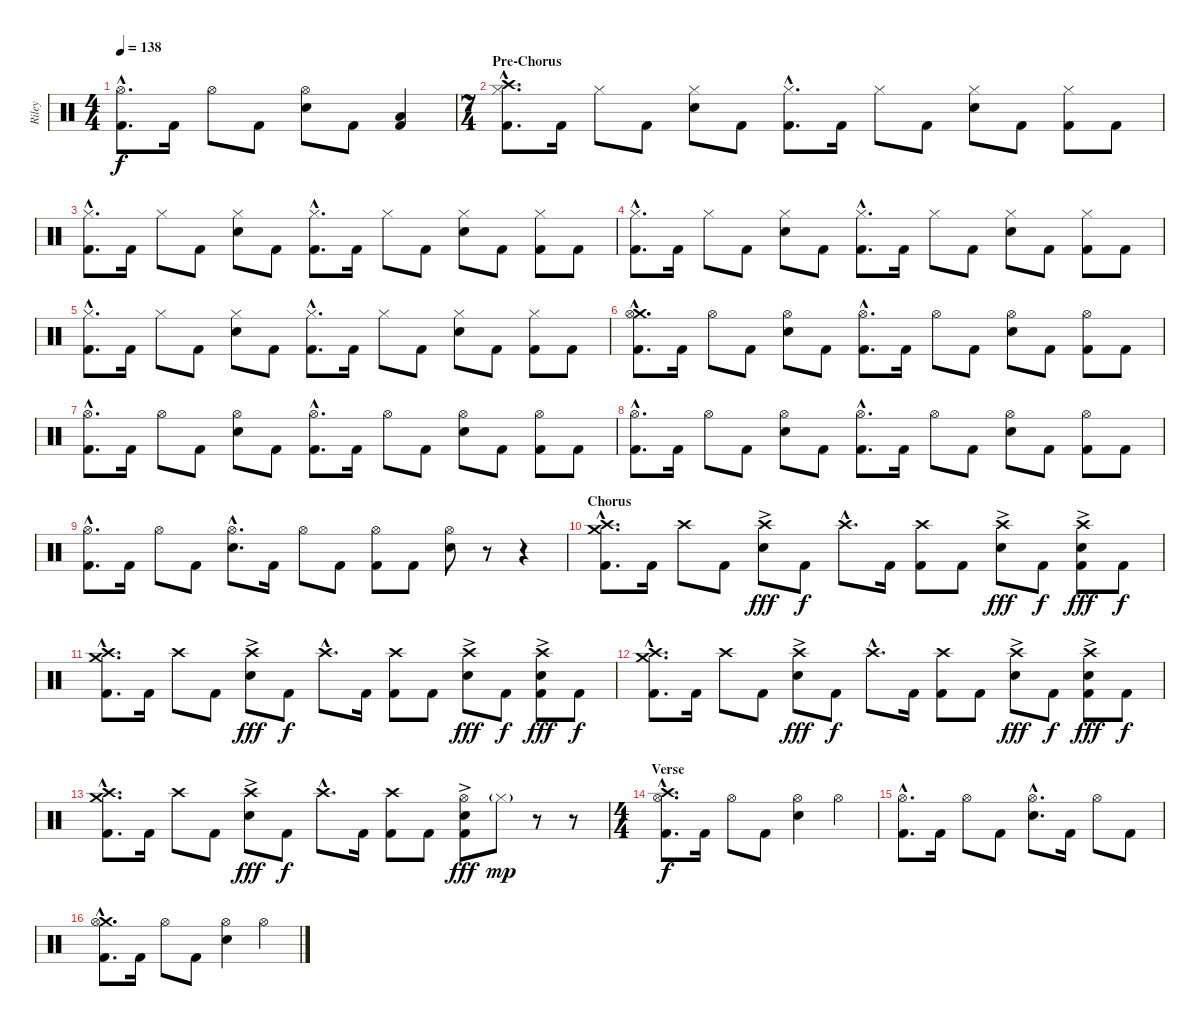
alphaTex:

\track ("Riley" "Riley") {instrument percussion}
\staff {score}
\articulation defaults
\ts (4 4)
\tempo 138
\clef neutral
\ks c
("Hi-Hat (open)"{hac} "Kick (hit) 2"{hac}).8{d dy f} "Kick (hit) 2".16 "Hi-Hat (open)".8 "Kick (hit) 2".8 ("Hi-Hat (open)" "Electric Snare (hit)").8 "Kick (hit) 2".8 ("Low Tom (hit)" "Kick (hit) 2").4 |
\ts (7 4)
\section ("" "Pre-Chorus")
("Crash high (hit)"{hac} "Hi-Hat (closed)"{hac} "Kick (hit) 2"{hac}).8{d} "Kick (hit) 2".16 "Hi-Hat (closed)".8 "Kick (hit) 2".8 ("Hi-Hat (closed)" "Electric Snare (hit)").8 "Kick (hit) 2".8 ("Hi-Hat (closed)"{hac} "Kick (hit) 2"{hac}).8{d} "Kick (hit) 2".16 "Hi-Hat (closed)".8 "Kick (hit) 2".8 ("Hi-Hat (closed)" "Electric Snare (hit)").8 "Kick (hit) 2".8 ("Hi-Hat (closed)" "Kick (hit) 2").8 "Kick (hit) 2".8 |
("Hi-Hat (closed)"{hac} "Kick (hit) 2"{hac}).8{d} "Kick (hit) 2".16 "Hi-Hat (closed)".8 "Kick (hit) 2".8 ("Hi-Hat (closed)" "Electric Snare (hit)").8 "Kick (hit) 2".8 ("Hi-Hat (closed)"{hac} "Kick (hit) 2"{hac}).8{d} "Kick (hit) 2".16 "Hi-Hat (closed)".8 "Kick (hit) 2".8 ("Hi-Hat (closed)" "Electric Snare (hit)").8 "Kick (hit) 2".8 ("Hi-Hat (closed)" "Kick (hit) 2").8 "Kick (hit) 2".8 |
("Hi-Hat (closed)"{hac} "Kick (hit) 2"{hac}).8{d} "Kick (hit) 2".16 "Hi-Hat (closed)".8 "Kick (hit) 2".8 ("Hi-Hat (closed)" "Electric Snare (hit)").8 "Kick (hit) 2".8 ("Hi-Hat (closed)"{hac} "Kick (hit) 2"{hac}).8{d} "Kick (hit) 2".16 "Hi-Hat (closed)".8 "Kick (hit) 2".8 ("Hi-Hat (closed)" "Electric Snare (hit)").8 "Kick (hit) 2".8 ("Hi-Hat (closed)" "Kick (hit) 2").8 "Kick (hit) 2".8 |
("Hi-Hat (closed)"{hac} "Kick (hit) 2"{hac}).8{d} "Kick (hit) 2".16 "Hi-Hat (closed)".8 "Kick (hit) 2".8 ("Hi-Hat (closed)" "Electric Snare (hit)").8 "Kick (hit) 2".8 ("Hi-Hat (closed)"{hac} "Kick (hit) 2"{hac}).8{d} "Kick (hit) 2".16 "Hi-Hat (closed)".8 "Kick (hit) 2".8 ("Hi-Hat (closed)" "Electric Snare (hit)").8 "Kick (hit) 2".8 ("Hi-Hat (closed)" "Kick (hit) 2").8 "Kick (hit) 2".8 |
("Crash medium (hit)"{hac} "Hi-Hat (open)"{hac} "Kick (hit) 2"{hac}).8{d} "Kick (hit) 2".16 "Hi-Hat (open)".8 "Kick (hit) 2".8 ("Hi-Hat (open)" "Electric Snare (hit)").8 "Kick (hit) 2".8 ("Hi-Hat (open)"{hac} "Kick (hit) 2"{hac}).8{d} "Kick (hit) 2".16 "Hi-Hat (open)".8 "Kick (hit) 2".8 ("Hi-Hat (open)" "Electric Snare (hit)").8 "Kick (hit) 2".8 ("Hi-Hat (open)" "Kick (hit) 2").8 "Kick (hit) 2".8 |
("Hi-Hat (open)"{hac} "Kick (hit) 2"{hac}).8{d} "Kick (hit) 2".16 "Hi-Hat (open)".8 "Kick (hit) 2".8 ("Hi-Hat (open)" "Electric Snare (hit)").8 "Kick (hit) 2".8 ("Hi-Hat (open)"{hac} "Kick (hit) 2"{hac}).8{d} "Kick (hit) 2".16 "Hi-Hat (open)".8 "Kick (hit) 2".8 ("Hi-Hat (open)" "Electric Snare (hit)").8 "Kick (hit) 2".8 ("Hi-Hat (open)" "Kick (hit) 2").8 "Kick (hit) 2".8 |
("Hi-Hat (open)"{hac} "Kick (hit) 2"{hac}).8{d} "Kick (hit) 2".16 "Hi-Hat (open)".8 "Kick (hit) 2".8 ("Hi-Hat (open)" "Electric Snare (hit)").8 "Kick (hit) 2".8 ("Hi-Hat (open)"{hac} "Kick (hit) 2"{hac}).8{d} "Kick (hit) 2".16 "Hi-Hat (open)".8 "Kick (hit) 2".8 ("Hi-Hat (open)" "Electric Snare (hit)").8 "Kick (hit) 2".8 ("Hi-Hat (open)" "Kick (hit) 2").8 "Kick (hit) 2".8 |
("Hi-Hat (open)"{hac} "Kick (hit) 2"{hac}).8{d} "Kick (hit) 2".16 "Hi-Hat (open)".8 "Kick (hit) 2".8 ("Hi-Hat (open)"{hac} "Electric Snare (hit)"{hac}).8{d} "Kick (hit) 2".16 "Hi-Hat (open)".8 "Kick (hit) 2".8 ("Hi-Hat (open)" "Kick (hit) 2").8 "Kick (hit) 2".8 ("Hi-Hat (open)" "Electric Snare (hit)").8 r.8 r.4 |
\section ("" "Chorus")
("Crash medium (hit)"{hac} "Crash high (hit)"{hac} "Kick (hit) 2"{hac}).8{d} "Kick (hit) 2".16 "Crash high (hit)".8 "Kick (hit) 2".8 ("Crash high (hit)" "Electric Snare (hit)"{ac}).8{dy fff} "Kick (hit) 2".8{dy f} "Crash high (hit)"{hac}.8{d} "Kick (hit) 2".16 ("Crash high (hit)" "Kick (hit) 2").8 "Kick (hit) 2".8 ("Crash high (hit)" "Electric Snare (hit)"{ac}).8{dy fff} "Kick (hit) 2".8{dy f} ("Crash high (hit)" "Electric Snare (hit)"{ac} "Kick (hit) 2").8{dy fff} "Kick (hit) 2".8{dy f} |
("Crash medium (hit)"{hac} "Crash high (hit)"{hac} "Kick (hit) 2"{hac}).8{d} "Kick (hit) 2".16 "Crash high (hit)".8 "Kick (hit) 2".8 ("Crash high (hit)" "Electric Snare (hit)"{ac}).8{dy fff} "Kick (hit) 2".8{dy f} "Crash high (hit)"{hac}.8{d} "Kick (hit) 2".16 ("Crash high (hit)" "Kick (hit) 2").8 "Kick (hit) 2".8 ("Crash high (hit)" "Electric Snare (hit)"{ac}).8{dy fff} "Kick (hit) 2".8{dy f} ("Crash high (hit)" "Electric Snare (hit)"{ac} "Kick (hit) 2").8{dy fff} "Kick (hit) 2".8{dy f} |
("Crash medium (hit)"{hac} "Crash high (hit)"{hac} "Kick (hit) 2"{hac}).8{d} "Kick (hit) 2".16 "Crash high (hit)".8 "Kick (hit) 2".8 ("Crash high (hit)" "Electric Snare (hit)"{ac}).8{dy fff} "Kick (hit) 2".8{dy f} "Crash high (hit)"{hac}.8{d} "Kick (hit) 2".16 ("Crash high (hit)" "Kick (hit) 2").8 "Kick (hit) 2".8 ("Crash high (hit)" "Electric Snare (hit)"{ac}).8{dy fff} "Kick (hit) 2".8{dy f} ("Crash high (hit)" "Electric Snare (hit)"{ac} "Kick (hit) 2").8{dy fff} "Kick (hit) 2".8{dy f} |
("Crash medium (hit)"{hac} "Crash high (hit)"{hac} "Kick (hit) 2"{hac}).8{d} "Kick (hit) 2".16 "Crash high (hit)".8 "Kick (hit) 2".8 ("Crash high (hit)" "Electric Snare (hit)"{ac}).8{dy fff} "Kick (hit) 2".8{dy f} "Crash high (hit)"{hac}.8{d} "Kick (hit) 2".16 ("Crash high (hit)" "Kick (hit) 2").8 "Kick (hit) 2".8 ("Hi-Hat (open)" "Electric Snare (hit)"{ac} "Kick (hit) 2").8{dy fff} "Hi-Hat (closed)"{g}.8{dy mp} r.8 r.8 |
\ts (4 4)
\section ("" "Verse")
("Crash high (hit)"{hac} "Hi-Hat (open)"{hac} "Kick (hit) 2"{hac}).8{d dy f} "Kick (hit) 2".16 "Hi-Hat (open)".8 "Kick (hit) 2".8 ("Hi-Hat (open)" "Electric Snare (hit)").4 "Hi-Hat (open)".4 |
("Hi-Hat (open)"{hac} "Kick (hit) 2"{hac}).8{d} "Kick (hit) 2".16 "Hi-Hat (open)".8 "Kick (hit) 2".8 ("Hi-Hat (open)"{hac} "Electric Snare (hit)"{hac}).8{d} "Kick (hit) 2".16 "Hi-Hat (open)".8 "Kick (hit) 2".8 |
("Crash medium (hit)"{hac} "Hi-Hat (open)"{hac} "Kick (hit) 2"{hac}).8{d} "Kick (hit) 2".16 "Hi-Hat (open)".8 "Kick (hit) 2".8 ("Hi-Hat (open)" "Electric Snare (hit)").4 "Hi-Hat (open)".4
